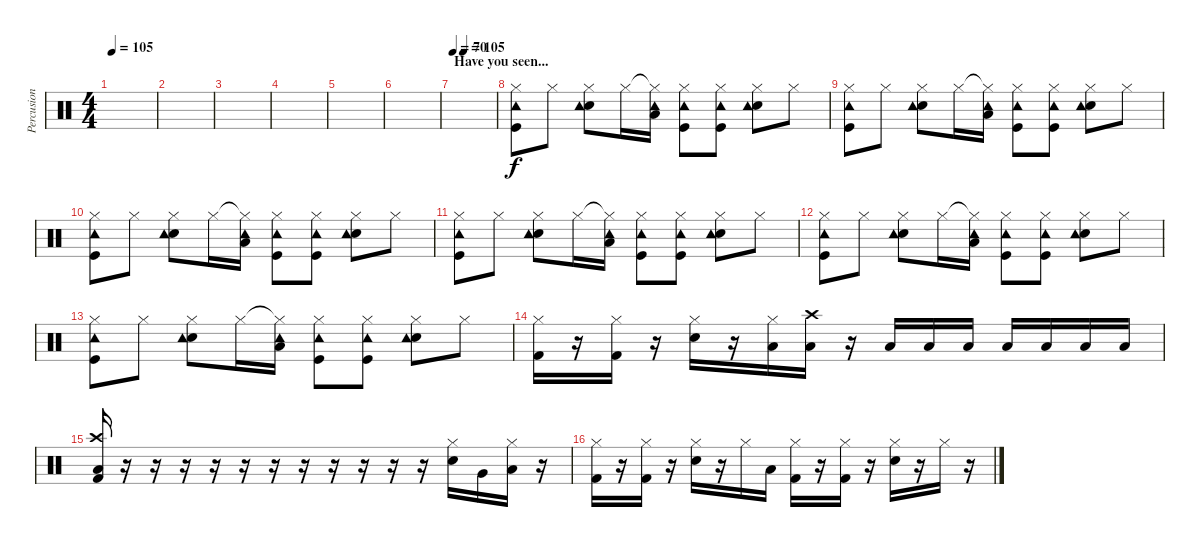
\track ("Percusion" "Percusion") {instrument percussion}
\staff {score}
\articulation defaults
\ts (4 4)
\tempo 105
\clef neutral
\ks c
|
|
|
|
|
|
\section ("" "Have you seen...")
\tempo 70
\tempo (105 0.25)
|
("Hi-Hat (closed)" "Kick (hit)" "Tambourine (hit)").8 "Hi-Hat (closed)".8 ("Hi-Hat (closed)" "Snare (hit) 2" "Tambourine (hit)").8 "Hi-Hat (closed)".16 ("Hi-Hat (closed)"{t} "Low Floor Tom (hit)" "Tambourine (hit)").16 ("Hi-Hat (closed)" "Kick (hit)" "Tambourine (hit)").8 ("Hi-Hat (closed)" "Kick (hit)" "Tambourine (hit)").8 ("Hi-Hat (closed)" "Snare (hit) 2" "Tambourine (hit)").8 "Hi-Hat (closed)".8 |
("Hi-Hat (closed)" "Kick (hit)" "Tambourine (hit)").8 "Hi-Hat (closed)".8 ("Hi-Hat (closed)" "Snare (hit) 2" "Tambourine (hit)").8 "Hi-Hat (closed)".16 ("Hi-Hat (closed)"{t} "Low Floor Tom (hit)" "Tambourine (hit)").16 ("Hi-Hat (closed)" "Kick (hit)" "Tambourine (hit)").8 ("Hi-Hat (closed)" "Kick (hit)" "Tambourine (hit)").8 ("Hi-Hat (closed)" "Snare (hit) 2" "Tambourine (hit)").8 "Hi-Hat (closed)".8 |
("Hi-Hat (closed)" "Kick (hit)" "Tambourine (hit)").8 "Hi-Hat (closed)".8 ("Hi-Hat (closed)" "Snare (hit) 2" "Tambourine (hit)").8 "Hi-Hat (closed)".16 ("Hi-Hat (closed)"{t} "Low Floor Tom (hit)" "Tambourine (hit)").16 ("Hi-Hat (closed)" "Kick (hit)" "Tambourine (hit)").8 ("Hi-Hat (closed)" "Kick (hit)" "Tambourine (hit)").8 ("Hi-Hat (closed)" "Snare (hit) 2" "Tambourine (hit)").8 "Hi-Hat (closed)".8 |
("Hi-Hat (closed)" "Kick (hit)" "Tambourine (hit)").8 "Hi-Hat (closed)".8 ("Hi-Hat (closed)" "Snare (hit) 2" "Tambourine (hit)").8 "Hi-Hat (closed)".16 ("Hi-Hat (closed)"{t} "Low Floor Tom (hit)" "Tambourine (hit)").16 ("Hi-Hat (closed)" "Kick (hit)" "Tambourine (hit)").8 ("Hi-Hat (closed)" "Kick (hit)" "Tambourine (hit)").8 ("Hi-Hat (closed)" "Snare (hit) 2" "Tambourine (hit)").8 "Hi-Hat (closed)".8 |
("Hi-Hat (closed)" "Kick (hit)" "Tambourine (hit)").8 "Hi-Hat (closed)".8 ("Hi-Hat (closed)" "Snare (hit) 2" "Tambourine (hit)").8 "Hi-Hat (closed)".16 ("Hi-Hat (closed)"{t} "Low Floor Tom (hit)" "Tambourine (hit)").16 ("Hi-Hat (closed)" "Kick (hit)" "Tambourine (hit)").8 ("Hi-Hat (closed)" "Kick (hit)" "Tambourine (hit)").8 ("Hi-Hat (closed)" "Snare (hit) 2" "Tambourine (hit)").8 "Hi-Hat (closed)".8 |
("Hi-Hat (closed)" "Kick (hit)" "Tambourine (hit)").8 "Hi-Hat (closed)".8 ("Hi-Hat (closed)" "Snare (hit) 2" "Tambourine (hit)").8 "Hi-Hat (closed)".16 ("Hi-Hat (closed)"{t} "Low Floor Tom (hit)" "Tambourine (hit)").16 ("Hi-Hat (closed)" "Kick (hit)" "Tambourine (hit)").8 ("Hi-Hat (closed)" "Kick (hit)" "Tambourine (hit)").8 ("Hi-Hat (closed)" "Snare (hit) 2" "Tambourine (hit)").8 "Hi-Hat (closed)".8 |
("Hi-Hat (closed)" "Kick (hit) 2").16 r.16 ("Hi-Hat (closed)" "Kick (hit) 2").16 r.16 ("Hi-Hat (closed)" "Snare (hit) 2").16 r.16 ("Hi-Hat (closed)" "Low Floor Tom (hit)").16 ("Crash high (hit)" "Low Tom (hit)").16 r.16 "Low Tom (hit)".16 "Low Tom (hit)".16 "Low Tom (hit)".16 "Low Tom (hit)".16 "Low Tom (hit)".16 "Low Tom (hit)".16 "Low Tom (hit)".16 |
("Crash high (hit)" "Low Tom (hit)" "Kick (hit) 2").16 r.16 r.16 r.16 r.16 r.16 r.16 r.16 r.16 r.16 r.16 r.16 ("Hi-Hat (closed)" "Snare (hit) 2").16 "Very Low Tom (hit)".16 ("Hi-Hat (closed)" "Low Floor Tom (hit)").16 r.16 |
("Hi-Hat (closed)" "Kick (hit) 2").16 r.16 ("Hi-Hat (closed)" "Kick (hit) 2").16 r.16 ("Hi-Hat (closed)" "Snare (hit) 2").16 r.16 "Hi-Hat (closed)".16 "Low Floor Tom (hit)".16 ("Hi-Hat (closed)" "Kick (hit) 2").16 r.16 ("Hi-Hat (closed)" "Kick (hit) 2").16 r.16 ("Hi-Hat (closed)" "Snare (hit) 2").16 r.16 "Hi-Hat (closed)".16 r.16
